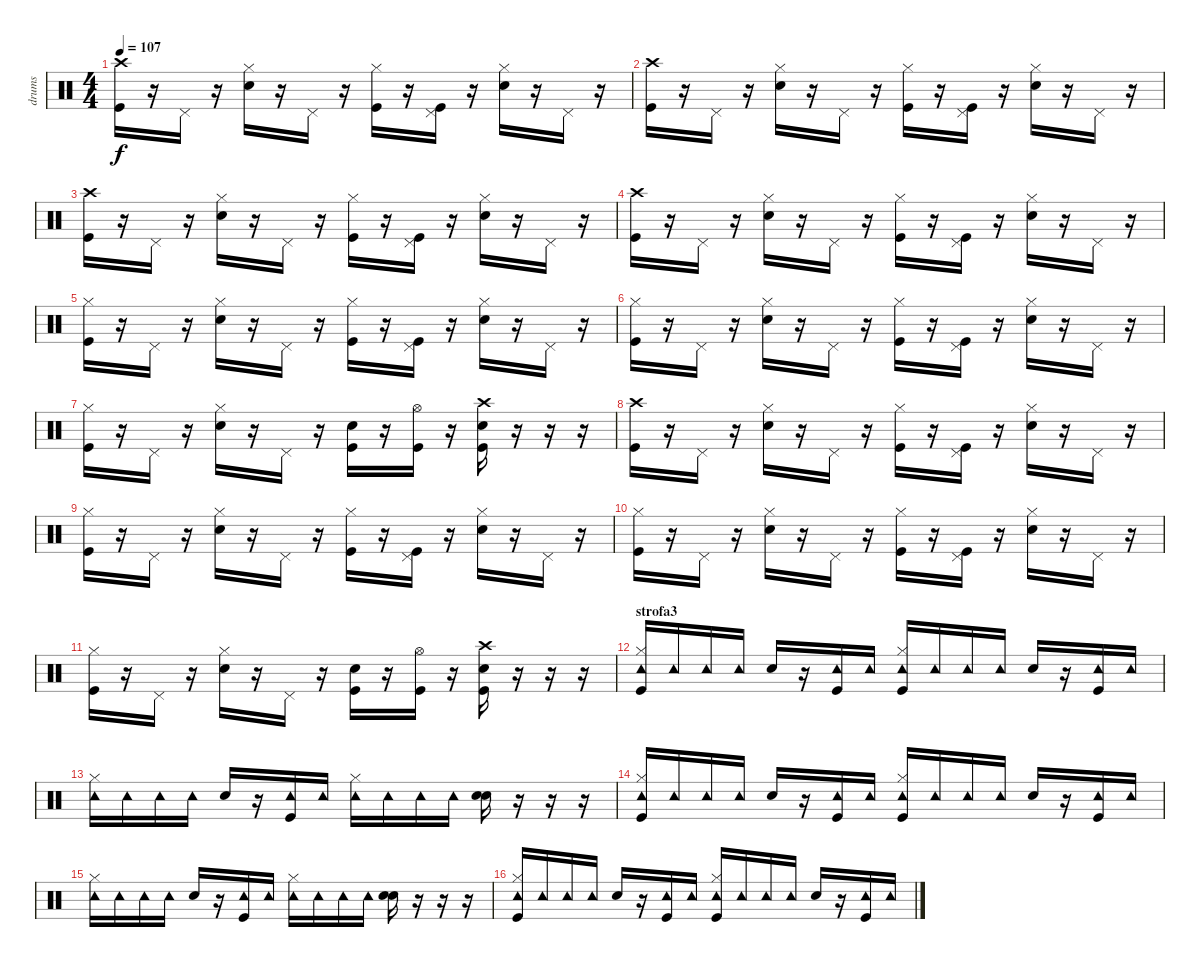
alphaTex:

\track ("drums" "drums") {instrument percussion}
\staff {score}
\articulation defaults
\ts (4 4)
\tempo 107
\clef neutral
\ks c
("Crash high (hit)" "Kick (hit)").16{dy f} r.16 "Pedal Hi-Hat (hit)".16 r.16 ("Hi-Hat (closed)" "Snare (hit) 2").16 r.16 "Pedal Hi-Hat (hit)".16 r.16 ("Hi-Hat (closed)" "Kick (hit)").16 r.16 ("Pedal Hi-Hat (hit)" "Kick (hit)").16 r.16 ("Hi-Hat (closed)" "Snare (hit) 2").16 r.16 "Pedal Hi-Hat (hit)".16 r.16 |
("Crash high (hit)" "Kick (hit)").16 r.16 "Pedal Hi-Hat (hit)".16 r.16 ("Hi-Hat (closed)" "Snare (hit) 2").16 r.16 "Pedal Hi-Hat (hit)".16 r.16 ("Hi-Hat (closed)" "Kick (hit)").16 r.16 ("Pedal Hi-Hat (hit)" "Kick (hit)").16 r.16 ("Hi-Hat (closed)" "Snare (hit) 2").16 r.16 "Pedal Hi-Hat (hit)".16 r.16 |
("Crash high (hit)" "Kick (hit)").16 r.16 "Pedal Hi-Hat (hit)".16 r.16 ("Hi-Hat (closed)" "Snare (hit) 2").16 r.16 "Pedal Hi-Hat (hit)".16 r.16 ("Hi-Hat (closed)" "Kick (hit)").16 r.16 ("Pedal Hi-Hat (hit)" "Kick (hit)").16 r.16 ("Hi-Hat (closed)" "Snare (hit) 2").16 r.16 "Pedal Hi-Hat (hit)".16 r.16 |
("Crash high (hit)" "Kick (hit)").16 r.16 "Pedal Hi-Hat (hit)".16 r.16 ("Hi-Hat (closed)" "Snare (hit) 2").16 r.16 "Pedal Hi-Hat (hit)".16 r.16 ("Hi-Hat (closed)" "Kick (hit)").16 r.16 ("Pedal Hi-Hat (hit)" "Kick (hit)").16 r.16 ("Hi-Hat (closed)" "Snare (hit) 2").16 r.16 "Pedal Hi-Hat (hit)".16 r.16 |
("Hi-Hat (closed)" "Kick (hit)").16 r.16 "Pedal Hi-Hat (hit)".16 r.16 ("Hi-Hat (closed)" "Snare (hit) 2").16 r.16 "Pedal Hi-Hat (hit)".16 r.16 ("Hi-Hat (closed)" "Kick (hit)").16 r.16 ("Pedal Hi-Hat (hit)" "Kick (hit)").16 r.16 ("Hi-Hat (closed)" "Snare (hit) 2").16 r.16 "Pedal Hi-Hat (hit)".16 r.16 |
("Hi-Hat (closed)" "Kick (hit)").16 r.16 "Pedal Hi-Hat (hit)".16 r.16 ("Hi-Hat (closed)" "Snare (hit) 2").16 r.16 "Pedal Hi-Hat (hit)".16 r.16 ("Hi-Hat (closed)" "Kick (hit)").16 r.16 ("Pedal Hi-Hat (hit)" "Kick (hit)").16 r.16 ("Hi-Hat (closed)" "Snare (hit) 2").16 r.16 "Pedal Hi-Hat (hit)".16 r.16 |
("Hi-Hat (closed)" "Kick (hit)").16 r.16 "Pedal Hi-Hat (hit)".16 r.16 ("Hi-Hat (closed)" "Snare (hit) 2").16 r.16 "Pedal Hi-Hat (hit)".16 r.16 ("Snare (hit) 2" "Kick (hit)").16 r.16 ("Hi-Hat (open)" "Kick (hit)").16 r.16 ("Crash high (hit)" "Snare (hit) 2" "Kick (hit)").16 r.16 r.16 r.16 |
("Crash high (hit)" "Kick (hit)").16 r.16 "Pedal Hi-Hat (hit)".16 r.16 ("Hi-Hat (closed)" "Snare (hit) 2").16 r.16 "Pedal Hi-Hat (hit)".16 r.16 ("Hi-Hat (closed)" "Kick (hit)").16 r.16 ("Pedal Hi-Hat (hit)" "Kick (hit)").16 r.16 ("Hi-Hat (closed)" "Snare (hit) 2").16 r.16 "Pedal Hi-Hat (hit)".16 r.16 |
("Hi-Hat (closed)" "Kick (hit)").16 r.16 "Pedal Hi-Hat (hit)".16 r.16 ("Hi-Hat (closed)" "Snare (hit) 2").16 r.16 "Pedal Hi-Hat (hit)".16 r.16 ("Hi-Hat (closed)" "Kick (hit)").16 r.16 ("Pedal Hi-Hat (hit)" "Kick (hit)").16 r.16 ("Hi-Hat (closed)" "Snare (hit) 2").16 r.16 "Pedal Hi-Hat (hit)".16 r.16 |
("Hi-Hat (closed)" "Kick (hit)").16 r.16 "Pedal Hi-Hat (hit)".16 r.16 ("Hi-Hat (closed)" "Snare (hit) 2").16 r.16 "Pedal Hi-Hat (hit)".16 r.16 ("Hi-Hat (closed)" "Kick (hit)").16 r.16 ("Pedal Hi-Hat (hit)" "Kick (hit)").16 r.16 ("Hi-Hat (closed)" "Snare (hit) 2").16 r.16 "Pedal Hi-Hat (hit)".16 r.16 |
("Hi-Hat (closed)" "Kick (hit)").16 r.16 "Pedal Hi-Hat (hit)".16 r.16 ("Hi-Hat (closed)" "Snare (hit) 2").16 r.16 "Pedal Hi-Hat (hit)".16 r.16 ("Snare (hit) 2" "Kick (hit)").16 r.16 ("Hi-Hat (open)" "Kick (hit)").16 r.16 ("Crash high (hit)" "Snare (hit) 2" "Kick (hit)").16 r.16 r.16 r.16 |
\section ("" "strofa3")
("Hi-Hat (closed)" "Tambourine (hit)" "Kick (hit)").16 "Tambourine (hit)".16 "Tambourine (hit)".16 "Tambourine (hit)".16 "Snare (hit) 2".16 r.16 ("Tambourine (hit)" "Kick (hit)").16 "Tambourine (hit)".16 ("Hi-Hat (closed)" "Tambourine (hit)" "Kick (hit)").16 "Tambourine (hit)".16 "Tambourine (hit)".16 "Tambourine (hit)".16 "Snare (hit) 2".16 r.16 ("Tambourine (hit)" "Kick (hit)").16 "Tambourine (hit)".16 |
("Hi-Hat (closed)" "Tambourine (hit)").16 "Tambourine (hit)".16 "Tambourine (hit)".16 "Tambourine (hit)".16 "Snare (hit) 2".16 r.16 ("Tambourine (hit)" "Kick (hit)").16 "Tambourine (hit)".16 ("Hi-Hat (closed)" "Tambourine (hit)").16 "Tambourine (hit)".16 "Tambourine (hit)".16 "Tambourine (hit)".16 ("Snare (hit) 2" "Electric Snare (hit)").16 r.16 r.16 r.16 |
("Hi-Hat (closed)" "Tambourine (hit)" "Kick (hit)").16 "Tambourine (hit)".16 "Tambourine (hit)".16 "Tambourine (hit)".16 "Snare (hit) 2".16 r.16 ("Tambourine (hit)" "Kick (hit)").16 "Tambourine (hit)".16 ("Hi-Hat (closed)" "Tambourine (hit)" "Kick (hit)").16 "Tambourine (hit)".16 "Tambourine (hit)".16 "Tambourine (hit)".16 "Snare (hit) 2".16 r.16 ("Tambourine (hit)" "Kick (hit)").16 "Tambourine (hit)".16 |
("Hi-Hat (closed)" "Tambourine (hit)").16 "Tambourine (hit)".16 "Tambourine (hit)".16 "Tambourine (hit)".16 "Snare (hit) 2".16 r.16 ("Tambourine (hit)" "Kick (hit)").16 "Tambourine (hit)".16 ("Hi-Hat (closed)" "Tambourine (hit)").16 "Tambourine (hit)".16 "Tambourine (hit)".16 "Tambourine (hit)".16 ("Snare (hit) 2" "Electric Snare (hit)").16 r.16 r.16 r.16 |
("Hi-Hat (closed)" "Tambourine (hit)" "Kick (hit)").16 "Tambourine (hit)".16 "Tambourine (hit)".16 "Tambourine (hit)".16 "Snare (hit) 2".16 r.16 ("Tambourine (hit)" "Kick (hit)").16 "Tambourine (hit)".16 ("Hi-Hat (closed)" "Tambourine (hit)" "Kick (hit)").16 "Tambourine (hit)".16 "Tambourine (hit)".16 "Tambourine (hit)".16 "Snare (hit) 2".16 r.16 ("Tambourine (hit)" "Kick (hit)").16 "Tambourine (hit)".16
